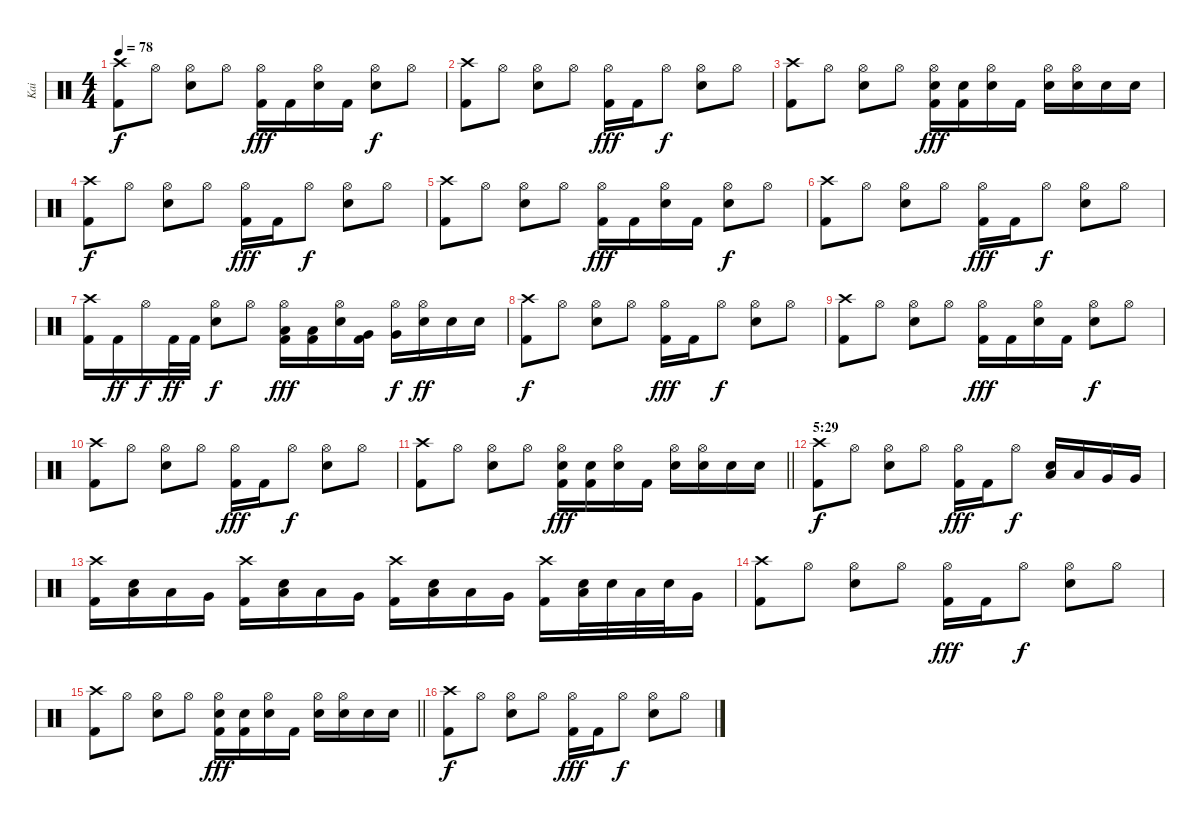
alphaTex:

\track ("Kai" "Kai") {instrument percussion}
\staff {score}
\articulation defaults
\ts (4 4)
\tempo 78
\clef neutral
\ks c
("Crash high (hit)" "Kick (hit) 2").8{dy f} "Hi-Hat (open)".8 ("Hi-Hat (open)" "Electric Snare (hit)").8 "Hi-Hat (open)".8 ("Hi-Hat (open)" "Kick (hit) 2").16{dy fff} "Kick (hit) 2".16 ("Hi-Hat (open)" "Electric Snare (hit)").16 "Kick (hit) 2".16 ("Hi-Hat (open)" "Electric Snare (hit)").8{dy f} "Hi-Hat (open)".8 |
("Crash high (hit)" "Kick (hit) 2").8 "Hi-Hat (open)".8 ("Hi-Hat (open)" "Electric Snare (hit)").8 "Hi-Hat (open)".8 ("Hi-Hat (open)" "Kick (hit) 2").16{dy fff} "Kick (hit) 2".16 "Hi-Hat (open)".8{dy f} ("Hi-Hat (open)" "Electric Snare (hit)").8 "Hi-Hat (open)".8 |
("Crash high (hit)" "Kick (hit) 2").8 "Hi-Hat (open)".8 ("Hi-Hat (open)" "Electric Snare (hit)").8 "Hi-Hat (open)".8 ("Hi-Hat (open)" "Electric Snare (hit)" "Kick (hit) 2").16{dy fff} ("Electric Snare (hit)" "Kick (hit) 2").16 ("Hi-Hat (open)" "Electric Snare (hit)").16 "Kick (hit) 2".16 ("Hi-Hat (open)" "Electric Snare (hit)").16 ("Hi-Hat (open)" "Electric Snare (hit)").16 "Electric Snare (hit)".16 "Electric Snare (hit)".16 |
("Crash high (hit)" "Kick (hit) 2").8{dy f} "Hi-Hat (open)".8 ("Hi-Hat (open)" "Electric Snare (hit)").8 "Hi-Hat (open)".8 ("Hi-Hat (open)" "Kick (hit) 2").16{dy fff} "Kick (hit) 2".16 "Hi-Hat (open)".8{dy f} ("Hi-Hat (open)" "Electric Snare (hit)").8 "Hi-Hat (open)".8 |
("Crash high (hit)" "Kick (hit) 2").8 "Hi-Hat (open)".8 ("Hi-Hat (open)" "Electric Snare (hit)").8 "Hi-Hat (open)".8 ("Hi-Hat (open)" "Kick (hit) 2").16{dy fff} "Kick (hit) 2".16 ("Hi-Hat (open)" "Electric Snare (hit)").16 "Kick (hit) 2".16 ("Hi-Hat (open)" "Electric Snare (hit)").8{dy f} "Hi-Hat (open)".8 |
("Crash high (hit)" "Kick (hit) 2").8 "Hi-Hat (open)".8 ("Hi-Hat (open)" "Electric Snare (hit)").8 "Hi-Hat (open)".8 ("Hi-Hat (open)" "Kick (hit) 2").16{dy fff} "Kick (hit) 2".16 "Hi-Hat (open)".8{dy f} ("Hi-Hat (open)" "Electric Snare (hit)").8 "Hi-Hat (open)".8 |
("Crash high (hit)" "Kick (hit) 2").16 "Kick (hit) 2".16{dy ff} "Hi-Hat (open)".16{dy f} "Kick (hit) 2".32{dy ff} "Kick (hit) 2".32 ("Hi-Hat (open)" "Electric Snare (hit)").8{dy f} "Hi-Hat (open)".8 ("Hi-Hat (open)" "Low Tom (hit)" "Kick (hit) 2").16{dy fff} ("Low Tom (hit)" "Kick (hit) 2").16 ("Hi-Hat (open)" "Electric Snare (hit)").16 ("Very Low Tom (hit)" "Kick (hit) 2").16 ("Hi-Hat (open)" "Very Low Tom (hit)").16{dy f} ("Hi-Hat (open)" "Electric Snare (hit)").16{dy ff} "Electric Snare (hit)".16 "Electric Snare (hit)".16 |
("Crash high (hit)" "Kick (hit) 2").8{dy f} "Hi-Hat (open)".8 ("Hi-Hat (open)" "Electric Snare (hit)").8 "Hi-Hat (open)".8 ("Hi-Hat (open)" "Kick (hit) 2").16{dy fff} "Kick (hit) 2".16 "Hi-Hat (open)".8{dy f} ("Hi-Hat (open)" "Electric Snare (hit)").8 "Hi-Hat (open)".8 |
("Crash high (hit)" "Kick (hit) 2").8 "Hi-Hat (open)".8 ("Hi-Hat (open)" "Electric Snare (hit)").8 "Hi-Hat (open)".8 ("Hi-Hat (open)" "Kick (hit) 2").16{dy fff} "Kick (hit) 2".16 ("Hi-Hat (open)" "Electric Snare (hit)").16 "Kick (hit) 2".16 ("Hi-Hat (open)" "Electric Snare (hit)").8{dy f} "Hi-Hat (open)".8 |
("Crash high (hit)" "Kick (hit) 2").8 "Hi-Hat (open)".8 ("Hi-Hat (open)" "Electric Snare (hit)").8 "Hi-Hat (open)".8 ("Hi-Hat (open)" "Kick (hit) 2").16{dy fff} "Kick (hit) 2".16 "Hi-Hat (open)".8{dy f} ("Hi-Hat (open)" "Electric Snare (hit)").8 "Hi-Hat (open)".8 |
\barLineRight lightlight
("Crash high (hit)" "Kick (hit) 2").8 "Hi-Hat (open)".8 ("Hi-Hat (open)" "Electric Snare (hit)").8 "Hi-Hat (open)".8 ("Hi-Hat (open)" "Electric Snare (hit)" "Kick (hit) 2").16{dy fff} ("Electric Snare (hit)" "Kick (hit) 2").16 ("Hi-Hat (open)" "Electric Snare (hit)").16 "Kick (hit) 2".16 ("Hi-Hat (open)" "Electric Snare (hit)").16 ("Hi-Hat (open)" "Electric Snare (hit)").16 "Electric Snare (hit)".16 "Electric Snare (hit)".16 |
\section ("" "5:29")
("Crash high (hit)" "Kick (hit) 2").8{dy f} "Hi-Hat (open)".8 ("Hi-Hat (open)" "Electric Snare (hit)").8 "Hi-Hat (open)".8 ("Hi-Hat (open)" "Kick (hit) 2").16{dy fff} "Kick (hit) 2".16 "Hi-Hat (open)".8{dy f} ("Low Tom (hit)" "Electric Snare (hit)").16 "Low Tom (hit)".16 "Very Low Tom (hit)".16 "Very Low Tom (hit)".16 |
("Crash high (hit)" "Kick (hit) 2").16 ("Low Tom (hit)" "Electric Snare (hit)").16 "Low Tom (hit)".16 "Very Low Tom (hit)".16 ("Crash high (hit)" "Kick (hit) 2").16 ("Low Tom (hit)" "Electric Snare (hit)").16 "Low Tom (hit)".16 "Very Low Tom (hit)".16 ("Crash high (hit)" "Kick (hit) 2").16 ("Low Tom (hit)" "Electric Snare (hit)").16 "Low Tom (hit)".16 "Very Low Tom (hit)".16 ("Crash high (hit)" "Kick (hit) 2").16 ("Low Tom (hit)" "Electric Snare (hit)").32 "Electric Snare (hit)".32 "Low Tom (hit)".32 "Electric Snare (hit)".32 "Very Low Tom (hit)".16 |
("Crash high (hit)" "Kick (hit) 2").8 "Hi-Hat (open)".8 ("Hi-Hat (open)" "Electric Snare (hit)").8 "Hi-Hat (open)".8 ("Hi-Hat (open)" "Kick (hit) 2").16{dy fff} "Kick (hit) 2".16 "Hi-Hat (open)".8{dy f} ("Hi-Hat (open)" "Electric Snare (hit)").8 "Hi-Hat (open)".8 |
\barLineRight lightlight
("Crash high (hit)" "Kick (hit) 2").8 "Hi-Hat (open)".8 ("Hi-Hat (open)" "Electric Snare (hit)").8 "Hi-Hat (open)".8 ("Hi-Hat (open)" "Electric Snare (hit)" "Kick (hit) 2").16{dy fff} ("Electric Snare (hit)" "Kick (hit) 2").16 ("Hi-Hat (open)" "Electric Snare (hit)").16 "Kick (hit) 2".16 ("Hi-Hat (open)" "Electric Snare (hit)").16 ("Hi-Hat (open)" "Electric Snare (hit)").16 "Electric Snare (hit)".16 "Electric Snare (hit)".16 |
("Crash high (hit)" "Kick (hit) 2").8{dy f} "Hi-Hat (open)".8 ("Hi-Hat (open)" "Electric Snare (hit)").8 "Hi-Hat (open)".8 ("Hi-Hat (open)" "Kick (hit) 2").16{dy fff} "Kick (hit) 2".16 "Hi-Hat (open)".8{dy f} ("Hi-Hat (open)" "Electric Snare (hit)").8 "Hi-Hat (open)".8
